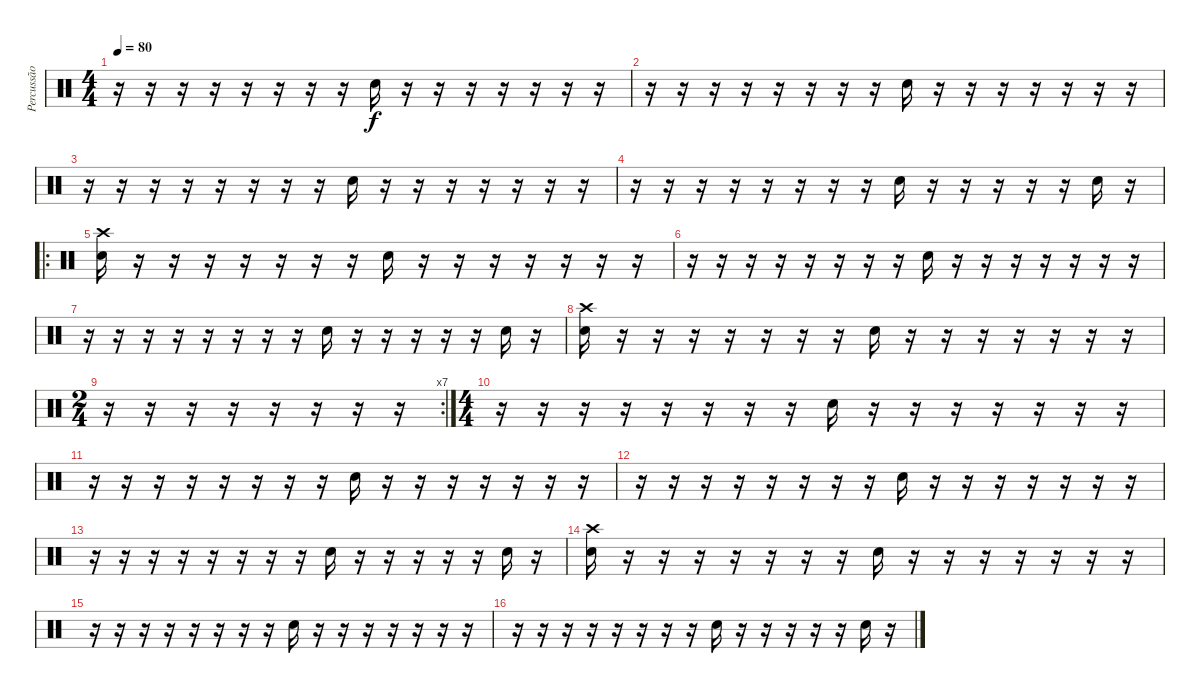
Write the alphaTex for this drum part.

\track ("Percussão" "Percussão") {instrument percussion}
\staff {score}
\articulation defaults
\ts (4 4)
\tempo 80
\clef neutral
\ks c
r.16{dy f} r.16 r.16 r.16 r.16 r.16 r.16 r.16 "Electric Snare (hit)".16 r.16 r.16 r.16 r.16 r.16 r.16 r.16 |
r.16 r.16 r.16 r.16 r.16 r.16 r.16 r.16 "Electric Snare (hit)".16 r.16 r.16 r.16 r.16 r.16 r.16 r.16 |
r.16 r.16 r.16 r.16 r.16 r.16 r.16 r.16 "Electric Snare (hit)".16 r.16 r.16 r.16 r.16 r.16 r.16 r.16 |
r.16 r.16 r.16 r.16 r.16 r.16 r.16 r.16 "Electric Snare (hit)".16 r.16 r.16 r.16 r.16 r.16 "Electric Snare (hit)".16 r.16 |
\ro
("Crash high (hit)" "Electric Snare (hit)").16 r.16 r.16 r.16 r.16 r.16 r.16 r.16 "Electric Snare (hit)".16 r.16 r.16 r.16 r.16 r.16 r.16 r.16 |
r.16 r.16 r.16 r.16 r.16 r.16 r.16 r.16 "Electric Snare (hit)".16 r.16 r.16 r.16 r.16 r.16 r.16 r.16 |
r.16 r.16 r.16 r.16 r.16 r.16 r.16 r.16 "Electric Snare (hit)".16 r.16 r.16 r.16 r.16 r.16 "Electric Snare (hit)".16 r.16 |
("Crash high (hit)" "Electric Snare (hit)").16 r.16 r.16 r.16 r.16 r.16 r.16 r.16 "Electric Snare (hit)".16 r.16 r.16 r.16 r.16 r.16 r.16 r.16 |
\rc 7
\ts (2 4)
r.16 r.16 r.16 r.16 r.16 r.16 r.16 r.16 |
\ts (4 4)
r.16 r.16 r.16 r.16 r.16 r.16 r.16 r.16 "Electric Snare (hit)".16 r.16 r.16 r.16 r.16 r.16 r.16 r.16 |
r.16 r.16 r.16 r.16 r.16 r.16 r.16 r.16 "Electric Snare (hit)".16 r.16 r.16 r.16 r.16 r.16 r.16 r.16 |
r.16 r.16 r.16 r.16 r.16 r.16 r.16 r.16 "Electric Snare (hit)".16 r.16 r.16 r.16 r.16 r.16 r.16 r.16 |
r.16 r.16 r.16 r.16 r.16 r.16 r.16 r.16 "Electric Snare (hit)".16 r.16 r.16 r.16 r.16 r.16 "Electric Snare (hit)".16 r.16 |
("Crash high (hit)" "Electric Snare (hit)").16 r.16 r.16 r.16 r.16 r.16 r.16 r.16 "Electric Snare (hit)".16 r.16 r.16 r.16 r.16 r.16 r.16 r.16 |
r.16 r.16 r.16 r.16 r.16 r.16 r.16 r.16 "Electric Snare (hit)".16 r.16 r.16 r.16 r.16 r.16 r.16 r.16 |
r.16 r.16 r.16 r.16 r.16 r.16 r.16 r.16 "Electric Snare (hit)".16 r.16 r.16 r.16 r.16 r.16 "Electric Snare (hit)".16 r.16
